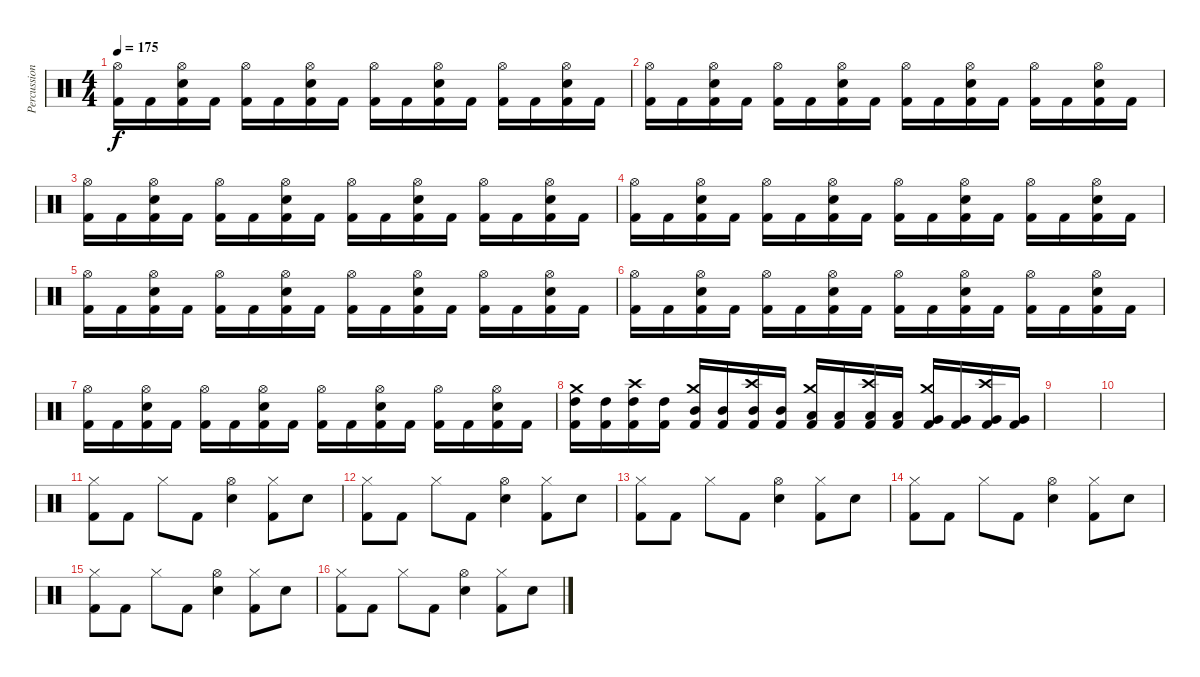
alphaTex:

\track ("Percussion" "Percussion") {instrument percussion}
\staff {score}
\articulation defaults
\ts (4 4)
\tempo 175
\clef neutral
\ks c
("Hi-Hat (open)" "Kick (hit) 2").16{dy f} "Kick (hit) 2".16 ("Hi-Hat (open)" "Snare (hit) 2" "Kick (hit) 2").16 "Kick (hit) 2".16 ("Hi-Hat (open)" "Kick (hit) 2").16 "Kick (hit) 2".16 ("Hi-Hat (open)" "Snare (hit) 2" "Kick (hit) 2").16 "Kick (hit) 2".16 ("Hi-Hat (open)" "Kick (hit) 2").16 "Kick (hit) 2".16 ("Hi-Hat (open)" "Snare (hit) 2" "Kick (hit) 2").16 "Kick (hit) 2".16 ("Hi-Hat (open)" "Kick (hit) 2").16 "Kick (hit) 2".16 ("Hi-Hat (open)" "Snare (hit) 2" "Kick (hit) 2").16 "Kick (hit) 2".16 |
("Hi-Hat (open)" "Kick (hit) 2").16 "Kick (hit) 2".16 ("Hi-Hat (open)" "Snare (hit) 2" "Kick (hit) 2").16 "Kick (hit) 2".16 ("Hi-Hat (open)" "Kick (hit) 2").16 "Kick (hit) 2".16 ("Hi-Hat (open)" "Snare (hit) 2" "Kick (hit) 2").16 "Kick (hit) 2".16 ("Hi-Hat (open)" "Kick (hit) 2").16 "Kick (hit) 2".16 ("Hi-Hat (open)" "Snare (hit) 2" "Kick (hit) 2").16 "Kick (hit) 2".16 ("Hi-Hat (open)" "Kick (hit) 2").16 "Kick (hit) 2".16 ("Hi-Hat (open)" "Snare (hit) 2" "Kick (hit) 2").16 "Kick (hit) 2".16 |
("Hi-Hat (open)" "Kick (hit) 2").16 "Kick (hit) 2".16 ("Hi-Hat (open)" "Snare (hit) 2" "Kick (hit) 2").16 "Kick (hit) 2".16 ("Hi-Hat (open)" "Kick (hit) 2").16 "Kick (hit) 2".16 ("Hi-Hat (open)" "Snare (hit) 2" "Kick (hit) 2").16 "Kick (hit) 2".16 ("Hi-Hat (open)" "Kick (hit) 2").16 "Kick (hit) 2".16 ("Hi-Hat (open)" "Snare (hit) 2" "Kick (hit) 2").16 "Kick (hit) 2".16 ("Hi-Hat (open)" "Kick (hit) 2").16 "Kick (hit) 2".16 ("Hi-Hat (open)" "Snare (hit) 2" "Kick (hit) 2").16 "Kick (hit) 2".16 |
("Hi-Hat (open)" "Kick (hit) 2").16 "Kick (hit) 2".16 ("Hi-Hat (open)" "Snare (hit) 2" "Kick (hit) 2").16 "Kick (hit) 2".16 ("Hi-Hat (open)" "Kick (hit) 2").16 "Kick (hit) 2".16 ("Hi-Hat (open)" "Snare (hit) 2" "Kick (hit) 2").16 "Kick (hit) 2".16 ("Hi-Hat (open)" "Kick (hit) 2").16 "Kick (hit) 2".16 ("Hi-Hat (open)" "Snare (hit) 2" "Kick (hit) 2").16 "Kick (hit) 2".16 ("Hi-Hat (open)" "Kick (hit) 2").16 "Kick (hit) 2".16 ("Hi-Hat (open)" "Snare (hit) 2" "Kick (hit) 2").16 "Kick (hit) 2".16 |
("Hi-Hat (open)" "Kick (hit) 2").16 "Kick (hit) 2".16 ("Hi-Hat (open)" "Snare (hit) 2" "Kick (hit) 2").16 "Kick (hit) 2".16 ("Hi-Hat (open)" "Kick (hit) 2").16 "Kick (hit) 2".16 ("Hi-Hat (open)" "Snare (hit) 2" "Kick (hit) 2").16 "Kick (hit) 2".16 ("Hi-Hat (open)" "Kick (hit) 2").16 "Kick (hit) 2".16 ("Hi-Hat (open)" "Snare (hit) 2" "Kick (hit) 2").16 "Kick (hit) 2".16 ("Hi-Hat (open)" "Kick (hit) 2").16 "Kick (hit) 2".16 ("Hi-Hat (open)" "Snare (hit) 2" "Kick (hit) 2").16 "Kick (hit) 2".16 |
("Hi-Hat (open)" "Kick (hit) 2").16 "Kick (hit) 2".16 ("Hi-Hat (open)" "Snare (hit) 2" "Kick (hit) 2").16 "Kick (hit) 2".16 ("Hi-Hat (open)" "Kick (hit) 2").16 "Kick (hit) 2".16 ("Hi-Hat (open)" "Snare (hit) 2" "Kick (hit) 2").16 "Kick (hit) 2".16 ("Hi-Hat (open)" "Kick (hit) 2").16 "Kick (hit) 2".16 ("Hi-Hat (open)" "Snare (hit) 2" "Kick (hit) 2").16 "Kick (hit) 2".16 ("Hi-Hat (open)" "Kick (hit) 2").16 "Kick (hit) 2".16 ("Hi-Hat (open)" "Snare (hit) 2" "Kick (hit) 2").16 "Kick (hit) 2".16 |
("Hi-Hat (open)" "Kick (hit) 2").16 "Kick (hit) 2".16 ("Hi-Hat (open)" "Snare (hit) 2" "Kick (hit) 2").16 "Kick (hit) 2".16 ("Hi-Hat (open)" "Kick (hit) 2").16 "Kick (hit) 2".16 ("Hi-Hat (open)" "Snare (hit) 2" "Kick (hit) 2").16 "Kick (hit) 2".16 ("Hi-Hat (open)" "Kick (hit) 2").16 "Kick (hit) 2".16 ("Hi-Hat (open)" "Snare (hit) 2" "Kick (hit) 2").16 "Kick (hit) 2".16 ("Hi-Hat (open)" "Kick (hit) 2").16 "Kick (hit) 2".16 ("Hi-Hat (open)" "Snare (hit) 2" "Kick (hit) 2").16 "Kick (hit) 2".16 |
("High Tom (hit)" "Crash medium (hit)" "Kick (hit) 2").16 ("High Tom (hit)" "Kick (hit) 2").16 ("High Tom (hit)" "Crash high (hit)" "Kick (hit) 2").16 ("High Tom (hit)" "Kick (hit) 2").16 ("Mid Tom (hit)" "Crash medium (hit)" "Kick (hit) 2").16 ("Mid Tom (hit)" "Kick (hit) 2").16 ("Mid Tom (hit)" "Crash high (hit)" "Kick (hit) 2").16 ("Mid Tom (hit)" "Kick (hit) 2").16 ("Low Tom (hit)" "Crash medium (hit)" "Kick (hit) 2").16 ("Low Tom (hit)" "Kick (hit) 2").16 ("Low Tom (hit)" "Crash high (hit)" "Kick (hit) 2").16 ("Low Tom (hit)" "Kick (hit) 2").16 ("Very Low Tom (hit)" "Crash medium (hit)" "Kick (hit) 2").16 ("Very Low Tom (hit)" "Kick (hit) 2").16 ("Very Low Tom (hit)" "Crash high (hit)" "Kick (hit) 2").16 ("Very Low Tom (hit)" "Kick (hit) 2").16 |
|
|
("Hi-Hat (closed)" "Kick (hit) 2").8 "Kick (hit) 2".8 "Hi-Hat (closed)".8 "Kick (hit) 2".8 ("Hi-Hat (open)" "Electric Snare (hit)").4 ("Hi-Hat (closed)" "Kick (hit) 2").8 "Electric Snare (hit)".8 |
("Hi-Hat (closed)" "Kick (hit) 2").8 "Kick (hit) 2".8 "Hi-Hat (closed)".8 "Kick (hit) 2".8 ("Hi-Hat (open)" "Electric Snare (hit)").4 ("Hi-Hat (closed)" "Kick (hit) 2").8 "Electric Snare (hit)".8 |
("Hi-Hat (closed)" "Kick (hit) 2").8 "Kick (hit) 2".8 "Hi-Hat (closed)".8 "Kick (hit) 2".8 ("Hi-Hat (open)" "Electric Snare (hit)").4 ("Hi-Hat (closed)" "Kick (hit) 2").8 "Electric Snare (hit)".8 |
("Hi-Hat (closed)" "Kick (hit) 2").8 "Kick (hit) 2".8 "Hi-Hat (closed)".8 "Kick (hit) 2".8 ("Hi-Hat (open)" "Electric Snare (hit)").4 ("Hi-Hat (closed)" "Kick (hit) 2").8 "Electric Snare (hit)".8 |
("Hi-Hat (closed)" "Kick (hit) 2").8 "Kick (hit) 2".8 "Hi-Hat (closed)".8 "Kick (hit) 2".8 ("Hi-Hat (open)" "Electric Snare (hit)").4 ("Hi-Hat (closed)" "Kick (hit) 2").8 "Electric Snare (hit)".8 |
("Hi-Hat (closed)" "Kick (hit) 2").8 "Kick (hit) 2".8 "Hi-Hat (closed)".8 "Kick (hit) 2".8 ("Hi-Hat (open)" "Electric Snare (hit)").4 ("Hi-Hat (closed)" "Kick (hit) 2").8 "Electric Snare (hit)".8
